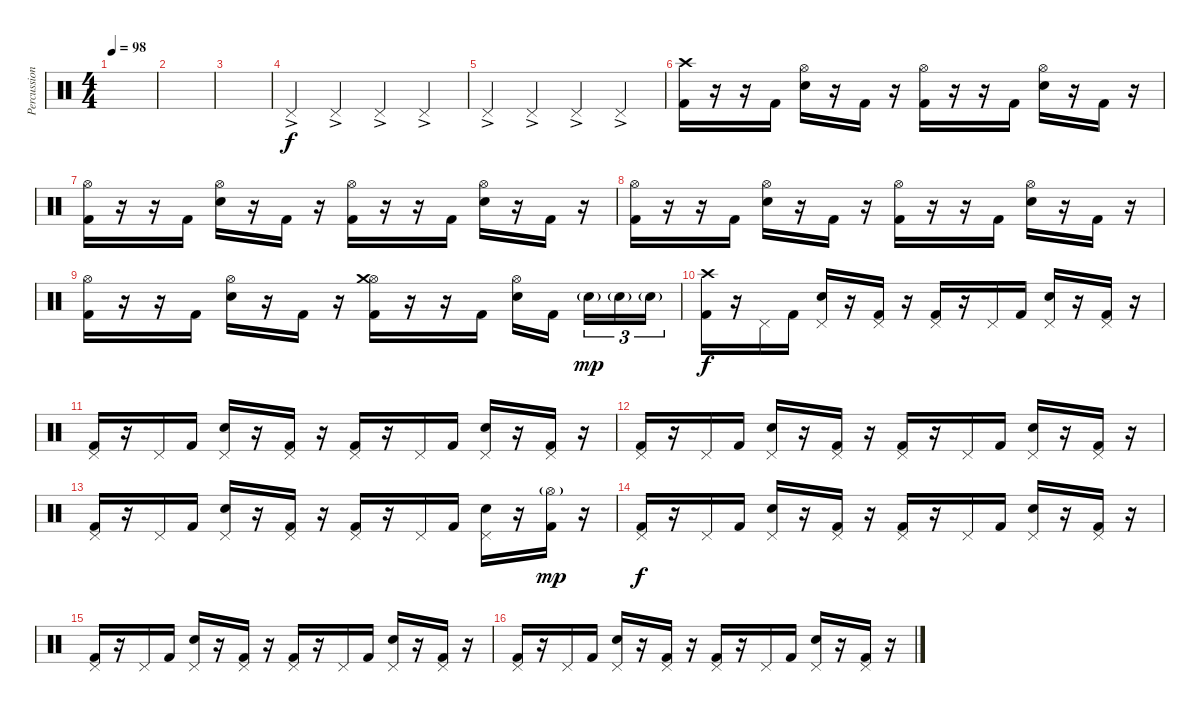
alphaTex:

\track ("Percussions" "Percussion") {instrument percussion}
\staff {score}
\articulation defaults
\ts (4 4)
\tempo 98
\clef neutral
\ks c
|
|
|
"Pedal Hi-Hat (hit)"{ac}.4 "Pedal Hi-Hat (hit)"{ac}.4 "Pedal Hi-Hat (hit)"{ac}.4 "Pedal Hi-Hat (hit)"{ac}.4 |
"Pedal Hi-Hat (hit)"{ac}.4 "Pedal Hi-Hat (hit)"{ac}.4 "Pedal Hi-Hat (hit)"{ac}.4 "Pedal Hi-Hat (hit)"{ac}.4 |
("Crash high (hit)" "Kick (hit) 2").16{dy f} r.16 r.16 "Kick (hit) 2".16 ("Hi-Hat (open)" "Snare (hit) 2").16 r.16 "Kick (hit) 2".16 r.16 ("Hi-Hat (open)" "Kick (hit) 2").16 r.16 r.16 "Kick (hit) 2".16 ("Hi-Hat (open)" "Snare (hit) 2").16 r.16 "Kick (hit) 2".16 r.16 |
("Hi-Hat (open)" "Kick (hit) 2").16 r.16 r.16 "Kick (hit) 2".16 ("Hi-Hat (open)" "Snare (hit) 2").16 r.16 "Kick (hit) 2".16 r.16 ("Hi-Hat (open)" "Kick (hit) 2").16 r.16 r.16 "Kick (hit) 2".16 ("Hi-Hat (open)" "Snare (hit) 2").16 r.16 "Kick (hit) 2".16 r.16 |
("Hi-Hat (open)" "Kick (hit) 2").16 r.16 r.16 "Kick (hit) 2".16 ("Hi-Hat (open)" "Snare (hit) 2").16 r.16 "Kick (hit) 2".16 r.16 ("Hi-Hat (open)" "Kick (hit) 2").16 r.16 r.16 "Kick (hit) 2".16 ("Hi-Hat (open)" "Snare (hit) 2").16 r.16 "Kick (hit) 2".16 r.16 |
("Hi-Hat (open)" "Kick (hit) 2").16 r.16 r.16 "Kick (hit) 2".16 ("Hi-Hat (open)" "Snare (hit) 2").16 r.16 "Kick (hit) 2".16 r.16 ("Hi-Hat (open)" "Crash medium (hit)" "Kick (hit) 2").16 r.16 r.16 "Kick (hit) 2".16 ("Hi-Hat (open)" "Snare (hit) 2").16 "Kick (hit) 2".16 "Snare (hit) 2"{g}.16{tu (3 2) dy mp} "Snare (hit) 2"{g}.16{tu (3 2)} "Snare (hit) 2"{g}.16{tu (3 2)} |
("Crash high (hit)" "Kick (hit) 2").16{dy f} r.16 "Pedal Hi-Hat (hit)".16 "Kick (hit) 2".16 ("Pedal Hi-Hat (hit)" "Snare (hit) 2").16 r.16 ("Pedal Hi-Hat (hit)" "Kick (hit) 2").16 r.16 ("Pedal Hi-Hat (hit)" "Kick (hit) 2").16 r.16 "Pedal Hi-Hat (hit)".16 "Kick (hit) 2".16 ("Pedal Hi-Hat (hit)" "Snare (hit) 2").16 r.16 ("Pedal Hi-Hat (hit)" "Kick (hit) 2").16 r.16 |
("Pedal Hi-Hat (hit)" "Kick (hit) 2").16 r.16 "Pedal Hi-Hat (hit)".16 "Kick (hit) 2".16 ("Pedal Hi-Hat (hit)" "Snare (hit) 2").16 r.16 ("Pedal Hi-Hat (hit)" "Kick (hit) 2").16 r.16 ("Pedal Hi-Hat (hit)" "Kick (hit) 2").16 r.16 "Pedal Hi-Hat (hit)".16 "Kick (hit) 2".16 ("Pedal Hi-Hat (hit)" "Snare (hit) 2").16 r.16 ("Pedal Hi-Hat (hit)" "Kick (hit) 2").16 r.16 |
("Pedal Hi-Hat (hit)" "Kick (hit) 2").16 r.16 "Pedal Hi-Hat (hit)".16 "Kick (hit) 2".16 ("Pedal Hi-Hat (hit)" "Snare (hit) 2").16 r.16 ("Pedal Hi-Hat (hit)" "Kick (hit) 2").16 r.16 ("Pedal Hi-Hat (hit)" "Kick (hit) 2").16 r.16 "Pedal Hi-Hat (hit)".16 "Kick (hit) 2".16 ("Pedal Hi-Hat (hit)" "Snare (hit) 2").16 r.16 ("Pedal Hi-Hat (hit)" "Kick (hit) 2").16 r.16 |
("Pedal Hi-Hat (hit)" "Kick (hit) 2").16 r.16 "Pedal Hi-Hat (hit)".16 "Kick (hit) 2".16 ("Pedal Hi-Hat (hit)" "Snare (hit) 2").16 r.16 ("Pedal Hi-Hat (hit)" "Kick (hit) 2").16 r.16 ("Pedal Hi-Hat (hit)" "Kick (hit) 2").16 r.16 "Pedal Hi-Hat (hit)".16 "Kick (hit) 2".16 ("Pedal Hi-Hat (hit)" "Snare (hit) 2").16 r.16 ("Hi-Hat (open)"{g} "Kick (hit) 2").16{dy mp} r.16 |
("Pedal Hi-Hat (hit)" "Kick (hit) 2").16{dy f} r.16 "Pedal Hi-Hat (hit)".16 "Kick (hit) 2".16 ("Pedal Hi-Hat (hit)" "Snare (hit) 2").16 r.16 ("Pedal Hi-Hat (hit)" "Kick (hit) 2").16 r.16 ("Pedal Hi-Hat (hit)" "Kick (hit) 2").16 r.16 "Pedal Hi-Hat (hit)".16 "Kick (hit) 2".16 ("Pedal Hi-Hat (hit)" "Snare (hit) 2").16 r.16 ("Pedal Hi-Hat (hit)" "Kick (hit) 2").16 r.16 |
("Pedal Hi-Hat (hit)" "Kick (hit) 2").16 r.16 "Pedal Hi-Hat (hit)".16 "Kick (hit) 2".16 ("Pedal Hi-Hat (hit)" "Snare (hit) 2").16 r.16 ("Pedal Hi-Hat (hit)" "Kick (hit) 2").16 r.16 ("Pedal Hi-Hat (hit)" "Kick (hit) 2").16 r.16 "Pedal Hi-Hat (hit)".16 "Kick (hit) 2".16 ("Pedal Hi-Hat (hit)" "Snare (hit) 2").16 r.16 ("Pedal Hi-Hat (hit)" "Kick (hit) 2").16 r.16 |
("Pedal Hi-Hat (hit)" "Kick (hit) 2").16 r.16 "Pedal Hi-Hat (hit)".16 "Kick (hit) 2".16 ("Pedal Hi-Hat (hit)" "Snare (hit) 2").16 r.16 ("Pedal Hi-Hat (hit)" "Kick (hit) 2").16 r.16 ("Pedal Hi-Hat (hit)" "Kick (hit) 2").16 r.16 "Pedal Hi-Hat (hit)".16 "Kick (hit) 2".16 ("Pedal Hi-Hat (hit)" "Snare (hit) 2").16 r.16 ("Pedal Hi-Hat (hit)" "Kick (hit) 2").16 r.16
